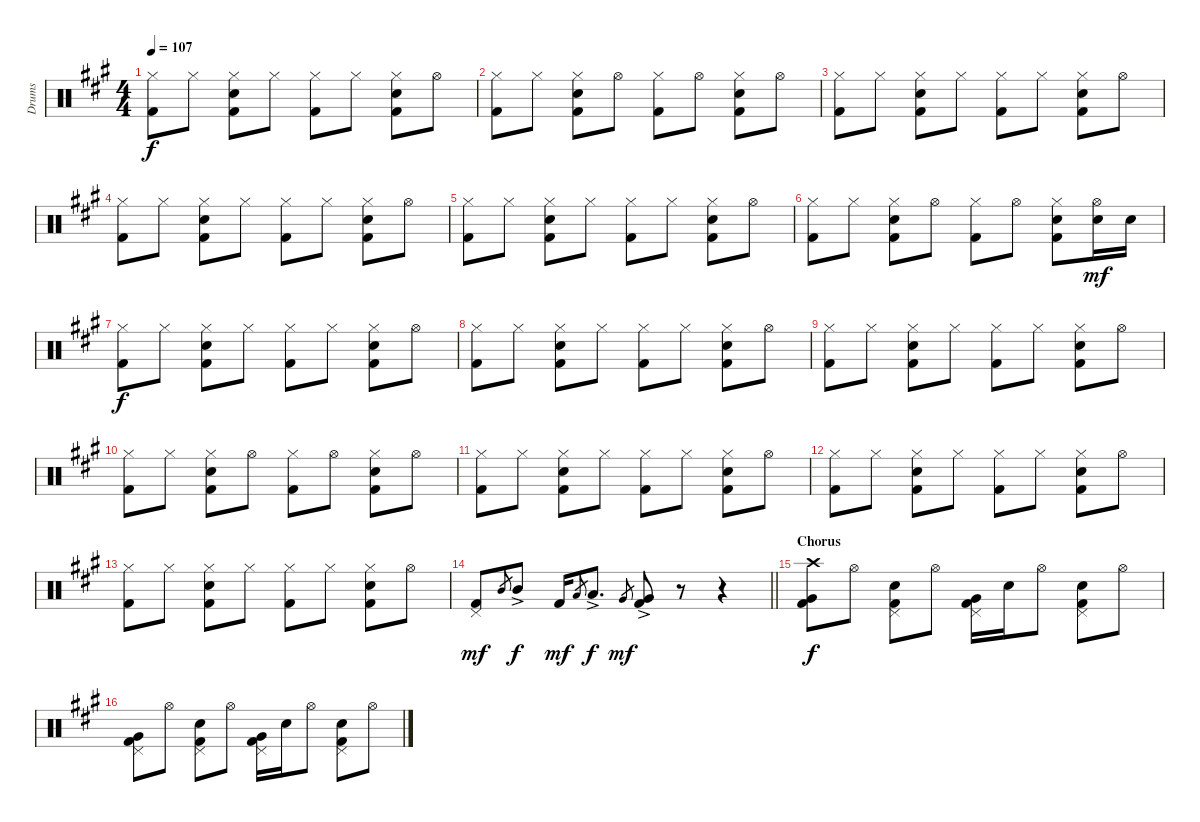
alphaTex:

\track ("Drums" "Drums") {instrument percussion}
\staff {score}
\articulation defaults
\ts (4 4)
\tempo 107
\clef neutral
\ks f#minor
("Hi-Hat (closed)" "Kick (hit) 2").8{dy f} "Hi-Hat (closed)".8 ("Hi-Hat (closed)" "Electric Snare (hit)" "Kick (hit) 2").8 "Hi-Hat (closed)".8 ("Hi-Hat (closed)" "Kick (hit) 2").8 "Hi-Hat (closed)".8 ("Hi-Hat (closed)" "Electric Snare (hit)" "Kick (hit) 2").8 "Hi-Hat (open)".8 |
("Hi-Hat (closed)" "Kick (hit) 2").8 "Hi-Hat (closed)".8 ("Hi-Hat (closed)" "Electric Snare (hit)" "Kick (hit) 2").8 "Hi-Hat (open)".8 ("Hi-Hat (closed)" "Kick (hit) 2").8 "Hi-Hat (open)".8 ("Hi-Hat (closed)" "Electric Snare (hit)" "Kick (hit) 2").8 "Hi-Hat (open)".8 |
("Hi-Hat (closed)" "Kick (hit) 2").8 "Hi-Hat (closed)".8 ("Hi-Hat (closed)" "Electric Snare (hit)" "Kick (hit) 2").8 "Hi-Hat (closed)".8 ("Hi-Hat (closed)" "Kick (hit) 2").8 "Hi-Hat (closed)".8 ("Hi-Hat (closed)" "Electric Snare (hit)" "Kick (hit) 2").8 "Hi-Hat (open)".8 |
("Hi-Hat (closed)" "Kick (hit) 2").8 "Hi-Hat (closed)".8 ("Hi-Hat (closed)" "Electric Snare (hit)" "Kick (hit) 2").8 "Hi-Hat (closed)".8 ("Hi-Hat (closed)" "Kick (hit) 2").8 "Hi-Hat (closed)".8 ("Hi-Hat (closed)" "Electric Snare (hit)" "Kick (hit) 2").8 "Hi-Hat (open)".8 |
("Hi-Hat (closed)" "Kick (hit) 2").8 "Hi-Hat (closed)".8 ("Hi-Hat (closed)" "Electric Snare (hit)" "Kick (hit) 2").8 "Hi-Hat (closed)".8 ("Hi-Hat (closed)" "Kick (hit) 2").8 "Hi-Hat (closed)".8 ("Hi-Hat (closed)" "Electric Snare (hit)" "Kick (hit) 2").8 "Hi-Hat (open)".8 |
("Hi-Hat (closed)" "Kick (hit) 2").8 "Hi-Hat (closed)".8 ("Hi-Hat (closed)" "Electric Snare (hit)" "Kick (hit) 2").8 "Hi-Hat (open)".8 ("Hi-Hat (closed)" "Kick (hit) 2").8 "Hi-Hat (open)".8 ("Hi-Hat (closed)" "Electric Snare (hit)" "Kick (hit) 2").8 ("Hi-Hat (open)" "Electric Snare (hit)").16{dy mf} "Electric Snare (hit)".16 |
("Hi-Hat (closed)" "Kick (hit) 2").8{dy f} "Hi-Hat (closed)".8 ("Hi-Hat (closed)" "Electric Snare (hit)" "Kick (hit) 2").8 "Hi-Hat (closed)".8 ("Hi-Hat (closed)" "Kick (hit) 2").8 "Hi-Hat (closed)".8 ("Hi-Hat (closed)" "Electric Snare (hit)" "Kick (hit) 2").8 "Hi-Hat (open)".8 |
("Hi-Hat (closed)" "Kick (hit) 2").8 "Hi-Hat (closed)".8 ("Hi-Hat (closed)" "Electric Snare (hit)" "Kick (hit) 2").8 "Hi-Hat (closed)".8 ("Hi-Hat (closed)" "Kick (hit) 2").8 "Hi-Hat (closed)".8 ("Hi-Hat (closed)" "Electric Snare (hit)" "Kick (hit) 2").8 "Hi-Hat (open)".8 |
("Hi-Hat (closed)" "Kick (hit) 2").8 "Hi-Hat (closed)".8 ("Hi-Hat (closed)" "Electric Snare (hit)" "Kick (hit) 2").8 "Hi-Hat (closed)".8 ("Hi-Hat (closed)" "Kick (hit) 2").8 "Hi-Hat (closed)".8 ("Hi-Hat (closed)" "Electric Snare (hit)" "Kick (hit) 2").8 "Hi-Hat (open)".8 |
("Hi-Hat (closed)" "Kick (hit) 2").8 "Hi-Hat (closed)".8 ("Hi-Hat (closed)" "Electric Snare (hit)" "Kick (hit) 2").8 "Hi-Hat (open)".8 ("Hi-Hat (closed)" "Kick (hit) 2").8 "Hi-Hat (open)".8 ("Hi-Hat (closed)" "Electric Snare (hit)" "Kick (hit) 2").8 "Hi-Hat (open)".8 |
("Hi-Hat (closed)" "Kick (hit) 2").8 "Hi-Hat (closed)".8 ("Hi-Hat (closed)" "Electric Snare (hit)" "Kick (hit) 2").8 "Hi-Hat (closed)".8 ("Hi-Hat (closed)" "Kick (hit) 2").8 "Hi-Hat (closed)".8 ("Hi-Hat (closed)" "Electric Snare (hit)" "Kick (hit) 2").8 "Hi-Hat (open)".8 |
("Hi-Hat (closed)" "Kick (hit) 2").8 "Hi-Hat (closed)".8 ("Hi-Hat (closed)" "Electric Snare (hit)" "Kick (hit) 2").8 "Hi-Hat (closed)".8 ("Hi-Hat (closed)" "Kick (hit) 2").8 "Hi-Hat (closed)".8 ("Hi-Hat (closed)" "Electric Snare (hit)" "Kick (hit) 2").8 "Hi-Hat (open)".8 |
("Hi-Hat (closed)" "Kick (hit) 2").8 "Hi-Hat (closed)".8 ("Hi-Hat (closed)" "Electric Snare (hit)" "Kick (hit) 2").8 "Hi-Hat (closed)".8 ("Hi-Hat (closed)" "Kick (hit) 2").8 "Hi-Hat (closed)".8 ("Hi-Hat (closed)" "Electric Snare (hit)" "Kick (hit) 2").8 "Hi-Hat (open)".8 |
\barLineRight lightlight
("Pedal Hi-Hat (hit)" "Kick (hit) 2").8{dy mf} "Mid Tom (hit)".8{gr} "Mid Tom (hit)"{ac}.8{dy f} "Kick (hit) 2".16{dy mf} "Low Tom (hit)".8{gr} "Low Tom (hit)"{ac}.8{d dy f} "Very Low Tom (hit)".8{gr dy mf} ("Very Low Tom (hit)"{ac} "Kick (hit) 2").8 r.8 r.4 |
\section ("" "Chorus")
("Crash high (hit)" "Very Low Tom (hit)" "Kick (hit) 2").8{dy f} "Hi-Hat (open)".8 ("Electric Snare (hit)" "Pedal Hi-Hat (hit)" "Kick (hit) 2").8 "Hi-Hat (open)".8 ("Very Low Tom (hit)" "Pedal Hi-Hat (hit)" "Kick (hit) 2").16 "Electric Snare (hit)".16 "Hi-Hat (open)".8 ("Electric Snare (hit)" "Pedal Hi-Hat (hit)" "Kick (hit) 2").8 "Hi-Hat (open)".8 |
("Very Low Tom (hit)" "Pedal Hi-Hat (hit)" "Kick (hit) 2").8 "Hi-Hat (open)".8 ("Electric Snare (hit)" "Pedal Hi-Hat (hit)" "Kick (hit) 2").8 "Hi-Hat (open)".8 ("Very Low Tom (hit)" "Pedal Hi-Hat (hit)" "Kick (hit) 2").16 "Electric Snare (hit)".16 "Hi-Hat (open)".8 ("Electric Snare (hit)" "Pedal Hi-Hat (hit)" "Kick (hit) 2").8 "Hi-Hat (open)".8
